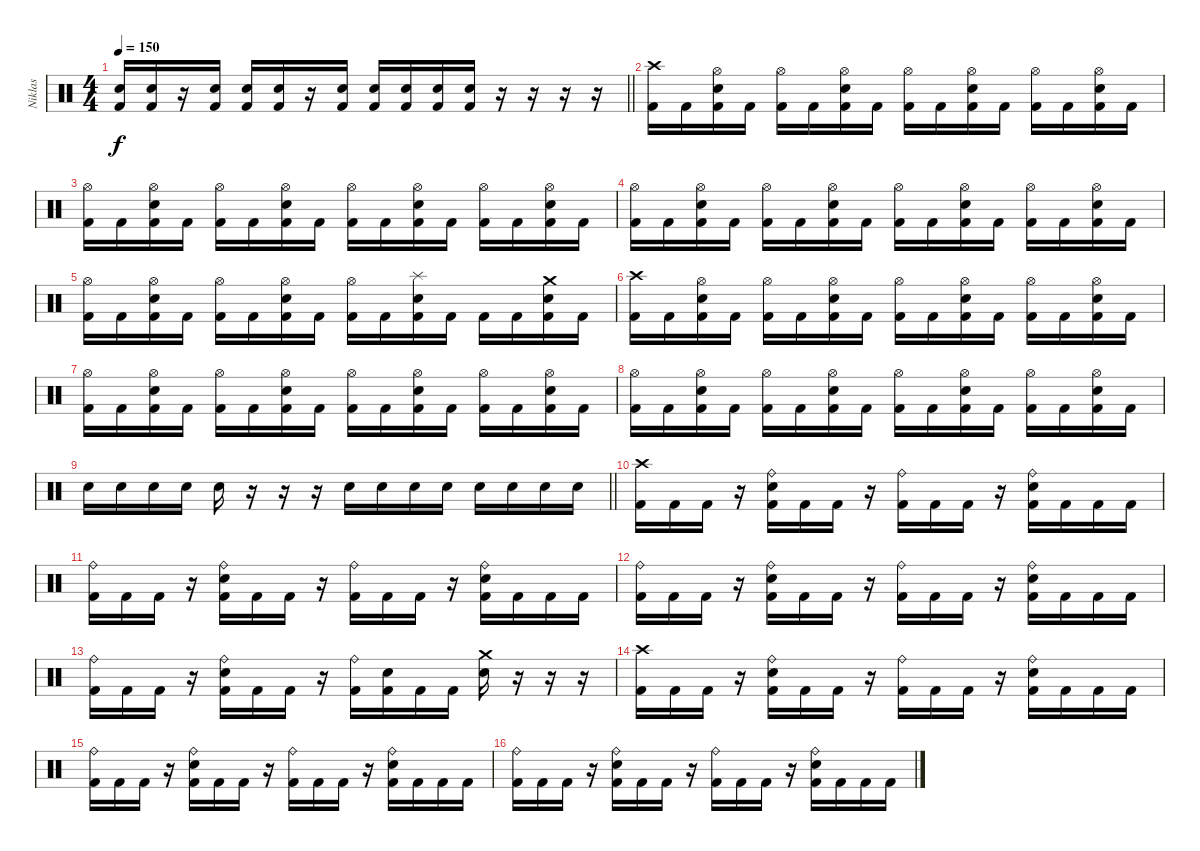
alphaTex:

\track ("Niklas" "Niklas") {instrument percussion}
\staff {score}
\articulation defaults
\ts (4 4)
\tempo 150
\clef neutral
\barLineRight lightlight
\ks c
("Electric Snare (hit)" "Kick (hit) 2").16{dy f} ("Electric Snare (hit)" "Kick (hit) 2").16 r.16 ("Electric Snare (hit)" "Kick (hit) 2").16 ("Electric Snare (hit)" "Kick (hit) 2").16 ("Electric Snare (hit)" "Kick (hit) 2").16 r.16 ("Electric Snare (hit)" "Kick (hit) 2").16 ("Electric Snare (hit)" "Kick (hit) 2").16 ("Electric Snare (hit)" "Kick (hit) 2").16 ("Electric Snare (hit)" "Kick (hit) 2").16 ("Electric Snare (hit)" "Kick (hit) 2").16 r.16 r.16 r.16 r.16 |
\section ("" "")
("Crash high (hit)" "Kick (hit) 2").16 "Kick (hit) 2".16 ("Hi-Hat (open)" "Electric Snare (hit)" "Kick (hit) 2").16 "Kick (hit) 2".16 ("Hi-Hat (open)" "Kick (hit) 2").16 "Kick (hit) 2".16 ("Hi-Hat (open)" "Electric Snare (hit)" "Kick (hit) 2").16 "Kick (hit) 2".16 ("Hi-Hat (open)" "Kick (hit) 2").16 "Kick (hit) 2".16 ("Hi-Hat (open)" "Electric Snare (hit)" "Kick (hit) 2").16 "Kick (hit) 2".16 ("Hi-Hat (open)" "Kick (hit) 2").16 "Kick (hit) 2".16 ("Hi-Hat (open)" "Electric Snare (hit)" "Kick (hit) 2").16 "Kick (hit) 2".16 |
("Hi-Hat (open)" "Kick (hit) 2").16 "Kick (hit) 2".16 ("Hi-Hat (open)" "Electric Snare (hit)" "Kick (hit) 2").16 "Kick (hit) 2".16 ("Hi-Hat (open)" "Kick (hit) 2").16 "Kick (hit) 2".16 ("Hi-Hat (open)" "Electric Snare (hit)" "Kick (hit) 2").16 "Kick (hit) 2".16 ("Hi-Hat (open)" "Kick (hit) 2").16 "Kick (hit) 2".16 ("Hi-Hat (open)" "Electric Snare (hit)" "Kick (hit) 2").16 "Kick (hit) 2".16 ("Hi-Hat (open)" "Kick (hit) 2").16 "Kick (hit) 2".16 ("Hi-Hat (open)" "Electric Snare (hit)" "Kick (hit) 2").16 "Kick (hit) 2".16 |
("Hi-Hat (open)" "Kick (hit) 2").16 "Kick (hit) 2".16 ("Hi-Hat (open)" "Electric Snare (hit)" "Kick (hit) 2").16 "Kick (hit) 2".16 ("Hi-Hat (open)" "Kick (hit) 2").16 "Kick (hit) 2".16 ("Hi-Hat (open)" "Electric Snare (hit)" "Kick (hit) 2").16 "Kick (hit) 2".16 ("Hi-Hat (open)" "Kick (hit) 2").16 "Kick (hit) 2".16 ("Hi-Hat (open)" "Electric Snare (hit)" "Kick (hit) 2").16 "Kick (hit) 2".16 ("Hi-Hat (open)" "Kick (hit) 2").16 "Kick (hit) 2".16 ("Hi-Hat (open)" "Electric Snare (hit)" "Kick (hit) 2").16 "Kick (hit) 2".16 |
("Hi-Hat (open)" "Kick (hit) 2").16 "Kick (hit) 2".16 ("Hi-Hat (open)" "Electric Snare (hit)" "Kick (hit) 2").16 "Kick (hit) 2".16 ("Hi-Hat (open)" "Kick (hit) 2").16 "Kick (hit) 2".16 ("Hi-Hat (open)" "Electric Snare (hit)" "Kick (hit) 2").16 "Kick (hit) 2".16 ("Hi-Hat (open)" "Kick (hit) 2").16 "Kick (hit) 2".16 ("Splash (hit)" "Electric Snare (hit)" "Kick (hit) 2").16 "Kick (hit) 2".16 "Kick (hit) 2".16 "Kick (hit) 2".16 ("Crash medium (hit)" "Electric Snare (hit)" "Kick (hit) 2").16 "Kick (hit) 2".16 |
("Crash high (hit)" "Kick (hit) 2").16 "Kick (hit) 2".16 ("Hi-Hat (open)" "Electric Snare (hit)" "Kick (hit) 2").16 "Kick (hit) 2".16 ("Hi-Hat (open)" "Kick (hit) 2").16 "Kick (hit) 2".16 ("Hi-Hat (open)" "Electric Snare (hit)" "Kick (hit) 2").16 "Kick (hit) 2".16 ("Hi-Hat (open)" "Kick (hit) 2").16 "Kick (hit) 2".16 ("Hi-Hat (open)" "Electric Snare (hit)" "Kick (hit) 2").16 "Kick (hit) 2".16 ("Hi-Hat (open)" "Kick (hit) 2").16 "Kick (hit) 2".16 ("Hi-Hat (open)" "Electric Snare (hit)" "Kick (hit) 2").16 "Kick (hit) 2".16 |
("Hi-Hat (open)" "Kick (hit) 2").16 "Kick (hit) 2".16 ("Hi-Hat (open)" "Electric Snare (hit)" "Kick (hit) 2").16 "Kick (hit) 2".16 ("Hi-Hat (open)" "Kick (hit) 2").16 "Kick (hit) 2".16 ("Hi-Hat (open)" "Electric Snare (hit)" "Kick (hit) 2").16 "Kick (hit) 2".16 ("Hi-Hat (open)" "Kick (hit) 2").16 "Kick (hit) 2".16 ("Hi-Hat (open)" "Electric Snare (hit)" "Kick (hit) 2").16 "Kick (hit) 2".16 ("Hi-Hat (open)" "Kick (hit) 2").16 "Kick (hit) 2".16 ("Hi-Hat (open)" "Electric Snare (hit)" "Kick (hit) 2").16 "Kick (hit) 2".16 |
("Hi-Hat (open)" "Kick (hit) 2").16 "Kick (hit) 2".16 ("Hi-Hat (open)" "Electric Snare (hit)" "Kick (hit) 2").16 "Kick (hit) 2".16 ("Hi-Hat (open)" "Kick (hit) 2").16 "Kick (hit) 2".16 ("Hi-Hat (open)" "Electric Snare (hit)" "Kick (hit) 2").16 "Kick (hit) 2".16 ("Hi-Hat (open)" "Kick (hit) 2").16 "Kick (hit) 2".16 ("Hi-Hat (open)" "Electric Snare (hit)" "Kick (hit) 2").16 "Kick (hit) 2".16 ("Hi-Hat (open)" "Kick (hit) 2").16 "Kick (hit) 2".16 ("Hi-Hat (open)" "Electric Snare (hit)" "Kick (hit) 2").16 "Kick (hit) 2".16 |
\barLineRight lightlight "Electric Snare (hit)".16 "Electric Snare (hit)".16 "Electric Snare (hit)".16 "Electric Snare (hit)".16 "Electric Snare (hit)".16
r.16 r.16 r.16 "Electric Snare (hit)".16 "Electric Snare (hit)".16 "Electric Snare (hit)".16 "Electric Snare (hit)".16 "Electric Snare (hit)".16 "Electric Snare (hit)".16 "Electric Snare (hit)".16 "Electric Snare (hit)".16 |
\section ("" "")
("Crash high (hit)" "Kick (hit) 2").16 "Kick (hit) 2".16 "Kick (hit) 2".16 r.16 ("Ride (bell)" "Electric Snare (hit)" "Kick (hit) 2").16 "Kick (hit) 2".16 "Kick (hit) 2".16 r.16 ("Ride (bell)" "Kick (hit) 2").16 "Kick (hit) 2".16 "Kick (hit) 2".16 r.16 ("Ride (bell)" "Electric Snare (hit)" "Kick (hit) 2").16 "Kick (hit) 2".16 "Kick (hit) 2".16 "Kick (hit) 2".16 |
("Ride (bell)" "Kick (hit) 2").16 "Kick (hit) 2".16 "Kick (hit) 2".16 r.16 ("Ride (bell)" "Electric Snare (hit)" "Kick (hit) 2").16 "Kick (hit) 2".16 "Kick (hit) 2".16 r.16 ("Ride (bell)" "Kick (hit) 2").16 "Kick (hit) 2".16 "Kick (hit) 2".16 r.16 ("Ride (bell)" "Electric Snare (hit)" "Kick (hit) 2").16 "Kick (hit) 2".16 "Kick (hit) 2".16 "Kick (hit) 2".16 |
("Ride (bell)" "Kick (hit) 2").16 "Kick (hit) 2".16 "Kick (hit) 2".16 r.16 ("Ride (bell)" "Electric Snare (hit)" "Kick (hit) 2").16 "Kick (hit) 2".16 "Kick (hit) 2".16 r.16 ("Ride (bell)" "Kick (hit) 2").16 "Kick (hit) 2".16 "Kick (hit) 2".16 r.16 ("Ride (bell)" "Electric Snare (hit)" "Kick (hit) 2").16 "Kick (hit) 2".16 "Kick (hit) 2".16 "Kick (hit) 2".16 |
("Ride (bell)" "Kick (hit) 2").16 "Kick (hit) 2".16 "Kick (hit) 2".16 r.16 ("Ride (bell)" "Electric Snare (hit)" "Kick (hit) 2").16 "Kick (hit) 2".16 "Kick (hit) 2".16 r.16 ("Ride (bell)" "Kick (hit) 2").16 ("Electric Snare (hit)" "Kick (hit) 2").16 "Kick (hit) 2".16 "Kick (hit) 2".16 ("Crash medium (hit)" "Electric Snare (hit)").16 r.16 r.16 r.16 |
("Crash high (hit)" "Kick (hit) 2").16 "Kick (hit) 2".16 "Kick (hit) 2".16 r.16 ("Ride (bell)" "Electric Snare (hit)" "Kick (hit) 2").16 "Kick (hit) 2".16 "Kick (hit) 2".16 r.16 ("Ride (bell)" "Kick (hit) 2").16 "Kick (hit) 2".16 "Kick (hit) 2".16 r.16 ("Ride (bell)" "Electric Snare (hit)" "Kick (hit) 2").16 "Kick (hit) 2".16 "Kick (hit) 2".16 "Kick (hit) 2".16 |
("Ride (bell)" "Kick (hit) 2").16 "Kick (hit) 2".16 "Kick (hit) 2".16 r.16 ("Ride (bell)" "Electric Snare (hit)" "Kick (hit) 2").16 "Kick (hit) 2".16 "Kick (hit) 2".16 r.16 ("Ride (bell)" "Kick (hit) 2").16 "Kick (hit) 2".16 "Kick (hit) 2".16 r.16 ("Ride (bell)" "Electric Snare (hit)" "Kick (hit) 2").16 "Kick (hit) 2".16 "Kick (hit) 2".16 "Kick (hit) 2".16 |
("Ride (bell)" "Kick (hit) 2").16 "Kick (hit) 2".16 "Kick (hit) 2".16 r.16 ("Ride (bell)" "Electric Snare (hit)" "Kick (hit) 2").16 "Kick (hit) 2".16 "Kick (hit) 2".16 r.16 ("Ride (bell)" "Kick (hit) 2").16 "Kick (hit) 2".16 "Kick (hit) 2".16 r.16 ("Ride (bell)" "Electric Snare (hit)" "Kick (hit) 2").16 "Kick (hit) 2".16 "Kick (hit) 2".16 "Kick (hit) 2".16
